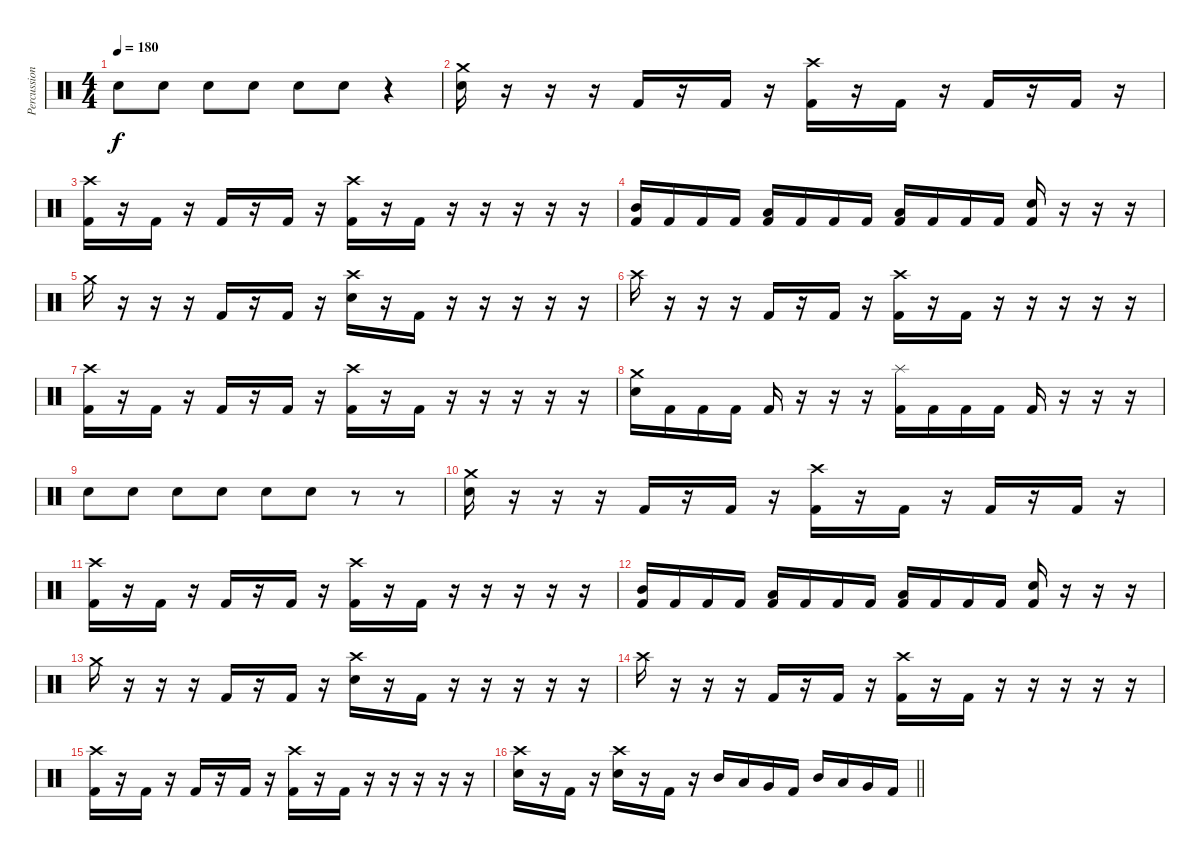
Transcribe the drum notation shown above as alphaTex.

\track ("Percussion" "Percussion") {instrument percussion}
\staff {score}
\articulation defaults
\ts (4 4)
\tempo 180
\clef neutral
\ks c "Electric Snare (hit)".8{dy f} "Electric Snare (hit)".8 "Electric Snare (hit)".8 "Electric Snare (hit)".8 "Electric Snare (hit)".8 "Electric Snare (hit)".8
r.4 |
("Crash medium (hit)" "Electric Snare (hit)").16 r.16 r.16 r.16 "Kick (hit) 2".16 r.16 "Kick (hit) 2".16 r.16 ("Crash high (hit)" "Kick (hit) 2").16 r.16 "Kick (hit) 2".16 r.16 "Kick (hit) 2".16 r.16 "Kick (hit) 2".16 r.16 |
("Crash high (hit)" "Kick (hit) 2").16 r.16 "Kick (hit) 2".16 r.16 "Kick (hit) 2".16 r.16 "Kick (hit) 2".16 r.16 ("Crash high (hit)" "Kick (hit) 2").16 r.16 "Kick (hit) 2".16 r.16 r.16 r.16 r.16 r.16 |
("Mid Tom (hit)" "Kick (hit) 2").16 "Kick (hit) 2".16 "Kick (hit) 2".16 "Kick (hit) 2".16 ("Low Tom (hit)" "Kick (hit) 2").16 "Kick (hit) 2".16 "Kick (hit) 2".16 "Kick (hit) 2".16 ("Low Floor Tom (hit)" "Kick (hit) 2").16 "Kick (hit) 2".16 "Kick (hit) 2".16 "Kick (hit) 2".16 ("Electric Snare (hit)" "Kick (hit) 2").16 r.16 r.16 r.16 |
"Crash medium (hit)".16 r.16 r.16 r.16 "Kick (hit) 2".16 r.16 "Kick (hit) 2".16 r.16 ("Crash high (hit)" "Electric Snare (hit)").16 r.16 "Kick (hit) 2".16 r.16 r.16 r.16 r.16 r.16 |
"Crash high (hit)".16 r.16 r.16 r.16 "Kick (hit) 2".16 r.16 "Kick (hit) 2".16 r.16 ("Crash high (hit)" "Kick (hit) 2").16 r.16 "Kick (hit) 2".16 r.16 r.16 r.16 r.16 r.16 |
("Crash high (hit)" "Kick (hit) 2").16 r.16 "Kick (hit) 2".16 r.16 "Kick (hit) 2".16 r.16 "Kick (hit) 2".16 r.16 ("Crash high (hit)" "Kick (hit) 2").16 r.16 "Kick (hit) 2".16 r.16 r.16 r.16 r.16 r.16 |
("Crash medium (hit)" "Electric Snare (hit)").16 "Kick (hit) 2".16 "Kick (hit) 2".16 "Kick (hit) 2".16 "Kick (hit) 2".16 r.16 r.16 r.16 ("Splash (hit)" "Kick (hit) 2").16 "Kick (hit) 2".16 "Kick (hit) 2".16 "Kick (hit) 2".16 "Kick (hit) 2".16 r.16 r.16 r.16 |
"Electric Snare (hit)".8 "Electric Snare (hit)".8 "Electric Snare (hit)".8 "Electric Snare (hit)".8 "Electric Snare (hit)".8 "Electric Snare (hit)".8 r.8 r.8 |
("Crash medium (hit)" "Electric Snare (hit)").16 r.16 r.16 r.16 "Kick (hit) 2".16 r.16 "Kick (hit) 2".16 r.16 ("Crash high (hit)" "Kick (hit) 2").16 r.16 "Kick (hit) 2".16 r.16 "Kick (hit) 2".16 r.16 "Kick (hit) 2".16 r.16 |
("Crash high (hit)" "Kick (hit) 2").16 r.16 "Kick (hit) 2".16 r.16 "Kick (hit) 2".16 r.16 "Kick (hit) 2".16 r.16 ("Crash high (hit)" "Kick (hit) 2").16 r.16 "Kick (hit) 2".16 r.16 r.16 r.16 r.16 r.16 |
("Mid Tom (hit)" "Kick (hit) 2").16 "Kick (hit) 2".16 "Kick (hit) 2".16 "Kick (hit) 2".16 ("Low Tom (hit)" "Kick (hit) 2").16 "Kick (hit) 2".16 "Kick (hit) 2".16 "Kick (hit) 2".16 ("Low Floor Tom (hit)" "Kick (hit) 2").16 "Kick (hit) 2".16 "Kick (hit) 2".16 "Kick (hit) 2".16 ("Electric Snare (hit)" "Kick (hit) 2").16 r.16 r.16 r.16 |
"Crash medium (hit)".16 r.16 r.16 r.16 "Kick (hit) 2".16 r.16 "Kick (hit) 2".16 r.16 ("Crash high (hit)" "Electric Snare (hit)").16 r.16 "Kick (hit) 2".16 r.16 r.16 r.16 r.16 r.16 |
"Crash high (hit)".16 r.16 r.16 r.16 "Kick (hit) 2".16 r.16 "Kick (hit) 2".16 r.16 ("Crash high (hit)" "Kick (hit) 2").16 r.16 "Kick (hit) 2".16 r.16 r.16 r.16 r.16 r.16 |
("Crash high (hit)" "Kick (hit) 2").16 r.16 "Kick (hit) 2".16 r.16 "Kick (hit) 2".16 r.16 "Kick (hit) 2".16 r.16 ("Crash high (hit)" "Kick (hit) 2").16 r.16 "Kick (hit) 2".16 r.16 r.16 r.16 r.16 r.16 |
\barLineRight lightlight
("Crash high (hit)" "Electric Snare (hit)").16 r.16 "Kick (hit) 2".16 r.16 ("Crash high (hit)" "Electric Snare (hit)").16 r.16 "Kick (hit) 2".16 r.16 "Mid Tom (hit)".16 "Low Tom (hit)".16 "Very Low Tom (hit)".16 "Kick (hit) 2".16 "Mid Tom (hit)".16 "Low Tom (hit)".16 "Very Low Tom (hit)".16 "Kick (hit) 2".16
